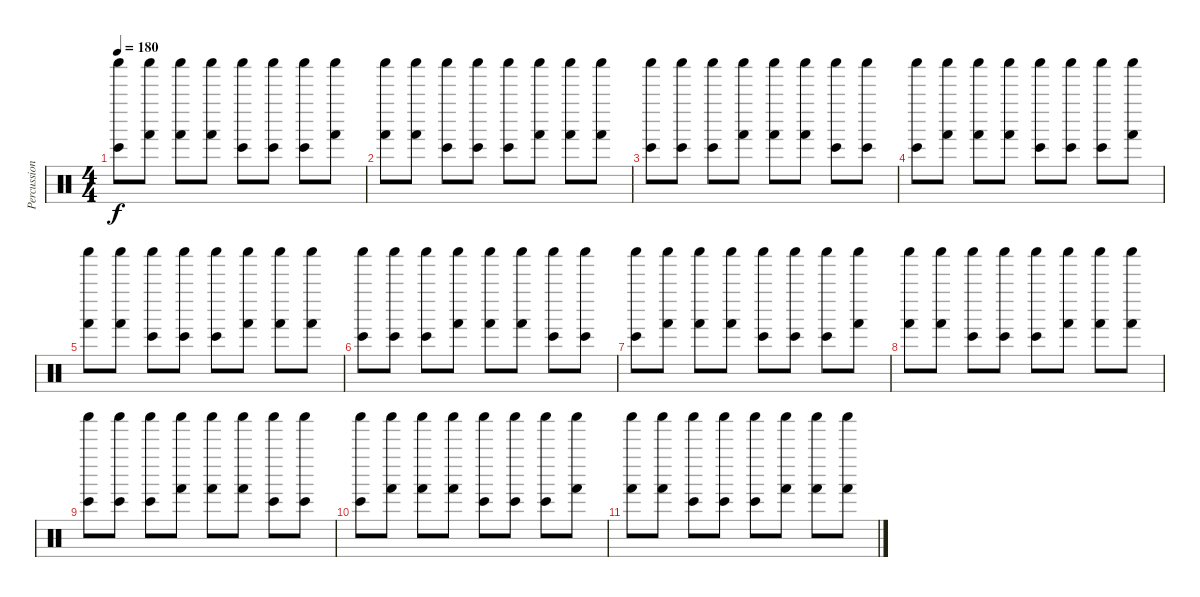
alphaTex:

\track ("Percussion" "Percussion") {instrument percussion}
\staff {score}
\articulation defaults
\ts (4 4)
\tempo 180
\clef neutral
\ks c
("Shaker (hit)" "Bongo High (hit)").8{dy f} ("Shaker (hit)" "Hand (hit)").8 ("Shaker (hit)" "Hand (hit)").8 ("Shaker (hit)" "Hand (hit)").8 ("Shaker (hit)" "Bongo High (hit)").8 ("Shaker (hit)" "Bongo High (hit)").8 ("Shaker (hit)" "Bongo High (hit)").8 ("Shaker (hit)" "Hand (hit)").8 |
("Shaker (hit)" "Hand (hit)").8 ("Shaker (hit)" "Hand (hit)").8 ("Shaker (hit)" "Bongo High (hit)").8 ("Shaker (hit)" "Bongo High (hit)").8 ("Shaker (hit)" "Bongo High (hit)").8 ("Shaker (hit)" "Hand (hit)").8 ("Shaker (hit)" "Hand (hit)").8 ("Shaker (hit)" "Hand (hit)").8 |
("Shaker (hit)" "Bongo High (hit)").8 ("Shaker (hit)" "Bongo High (hit)").8 ("Shaker (hit)" "Bongo High (hit)").8 ("Shaker (hit)" "Hand (hit)").8 ("Shaker (hit)" "Hand (hit)").8 ("Shaker (hit)" "Hand (hit)").8 ("Shaker (hit)" "Bongo High (hit)").8 ("Shaker (hit)" "Bongo High (hit)").8 |
("Shaker (hit)" "Bongo High (hit)").8 ("Shaker (hit)" "Hand (hit)").8 ("Shaker (hit)" "Hand (hit)").8 ("Shaker (hit)" "Hand (hit)").8 ("Shaker (hit)" "Bongo High (hit)").8 ("Shaker (hit)" "Bongo High (hit)").8 ("Shaker (hit)" "Bongo High (hit)").8 ("Shaker (hit)" "Hand (hit)").8 |
("Shaker (hit)" "Hand (hit)").8 ("Shaker (hit)" "Hand (hit)").8 ("Shaker (hit)" "Bongo High (hit)").8 ("Shaker (hit)" "Bongo High (hit)").8 ("Shaker (hit)" "Bongo High (hit)").8 ("Shaker (hit)" "Hand (hit)").8 ("Shaker (hit)" "Hand (hit)").8 ("Shaker (hit)" "Hand (hit)").8 |
("Shaker (hit)" "Bongo High (hit)").8 ("Shaker (hit)" "Bongo High (hit)").8 ("Shaker (hit)" "Bongo High (hit)").8 ("Shaker (hit)" "Hand (hit)").8 ("Shaker (hit)" "Hand (hit)").8 ("Shaker (hit)" "Hand (hit)").8 ("Shaker (hit)" "Bongo High (hit)").8 ("Shaker (hit)" "Bongo High (hit)").8 |
("Shaker (hit)" "Bongo High (hit)").8 ("Shaker (hit)" "Hand (hit)").8 ("Shaker (hit)" "Hand (hit)").8 ("Shaker (hit)" "Hand (hit)").8 ("Shaker (hit)" "Bongo High (hit)").8 ("Shaker (hit)" "Bongo High (hit)").8 ("Shaker (hit)" "Bongo High (hit)").8 ("Shaker (hit)" "Hand (hit)").8 |
("Shaker (hit)" "Hand (hit)").8 ("Shaker (hit)" "Hand (hit)").8 ("Shaker (hit)" "Bongo High (hit)").8 ("Shaker (hit)" "Bongo High (hit)").8 ("Shaker (hit)" "Bongo High (hit)").8 ("Shaker (hit)" "Hand (hit)").8 ("Shaker (hit)" "Hand (hit)").8 ("Shaker (hit)" "Hand (hit)").8 |
("Shaker (hit)" "Bongo High (hit)").8 ("Shaker (hit)" "Bongo High (hit)").8 ("Shaker (hit)" "Bongo High (hit)").8 ("Shaker (hit)" "Hand (hit)").8 ("Shaker (hit)" "Hand (hit)").8 ("Shaker (hit)" "Hand (hit)").8 ("Shaker (hit)" "Bongo High (hit)").8 ("Shaker (hit)" "Bongo High (hit)").8 |
("Shaker (hit)" "Bongo High (hit)").8 ("Shaker (hit)" "Hand (hit)").8 ("Shaker (hit)" "Hand (hit)").8 ("Shaker (hit)" "Hand (hit)").8 ("Shaker (hit)" "Bongo High (hit)").8 ("Shaker (hit)" "Bongo High (hit)").8 ("Shaker (hit)" "Bongo High (hit)").8 ("Shaker (hit)" "Hand (hit)").8 |
("Shaker (hit)" "Hand (hit)").8 ("Shaker (hit)" "Hand (hit)").8 ("Shaker (hit)" "Bongo High (hit)").8 ("Shaker (hit)" "Bongo High (hit)").8 ("Shaker (hit)" "Bongo High (hit)").8 ("Shaker (hit)" "Hand (hit)").8 ("Shaker (hit)" "Hand (hit)").8 ("Shaker (hit)" "Hand (hit)").8
